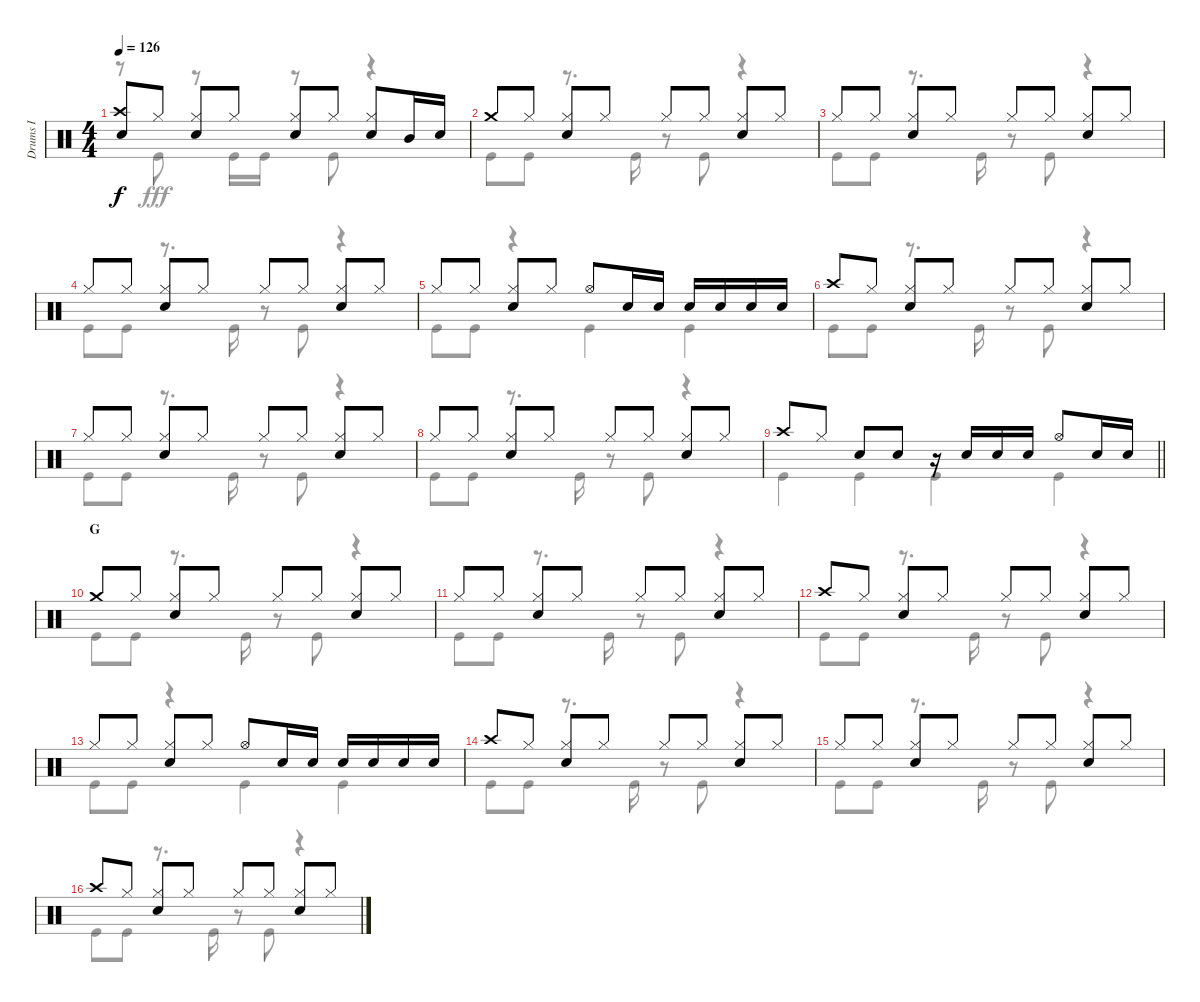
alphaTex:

\track ("Drums I" "Drums I") {instrument percussion}
\staff {score}
\articulation defaults
\voice
\ts (4 4)
\tempo 126
\clef neutral
\ks c
("Crash high (hit)" "Snare (hit) 2").8{dy f} "Hi-Hat (closed)".8 ("Hi-Hat (closed)" "Snare (hit) 2").8 "Hi-Hat (closed)".8 ("Hi-Hat (closed)" "Snare (hit) 2").8 "Hi-Hat (closed)".8 ("Hi-Hat (closed)" "Snare (hit) 2").8 "Mid Tom (hit)".16 "Snare (hit) 2".16 |
"Crash medium (hit)".8 "Hi-Hat (closed)".8 ("Hi-Hat (closed)" "Snare (hit) 2").8 "Hi-Hat (closed)".8 "Hi-Hat (closed)".8 "Hi-Hat (closed)".8 ("Hi-Hat (closed)" "Snare (hit) 2").8 "Hi-Hat (closed)".8 |
"Hi-Hat (closed)".8 "Hi-Hat (closed)".8 ("Hi-Hat (closed)" "Snare (hit) 2").8 "Hi-Hat (closed)".8 "Hi-Hat (closed)".8 "Hi-Hat (closed)".8 ("Hi-Hat (closed)" "Snare (hit) 2").8 "Hi-Hat (closed)".8 |
"Hi-Hat (closed)".8 "Hi-Hat (closed)".8 ("Hi-Hat (closed)" "Snare (hit) 2").8 "Hi-Hat (closed)".8 "Hi-Hat (closed)".8 "Hi-Hat (closed)".8 ("Hi-Hat (closed)" "Snare (hit) 2").8 "Hi-Hat (closed)".8 |
"Hi-Hat (closed)".8 "Hi-Hat (closed)".8 ("Hi-Hat (closed)" "Snare (hit) 2").8 "Hi-Hat (closed)".8 "Hi-Hat (open)".8 "Snare (hit) 2".16 "Snare (hit) 2".16 "Snare (hit) 2".16 "Snare (hit) 2".16 "Snare (hit) 2".16 "Snare (hit) 2".16 |
"Crash high (hit)".8 "Hi-Hat (closed)".8 ("Hi-Hat (closed)" "Snare (hit) 2").8 "Hi-Hat (closed)".8 "Hi-Hat (closed)".8 "Hi-Hat (closed)".8 ("Hi-Hat (closed)" "Snare (hit) 2").8 "Hi-Hat (closed)".8 |
"Hi-Hat (closed)".8 "Hi-Hat (closed)".8 ("Hi-Hat (closed)" "Snare (hit) 2").8 "Hi-Hat (closed)".8 "Hi-Hat (closed)".8 "Hi-Hat (closed)".8 ("Hi-Hat (closed)" "Snare (hit) 2").8 "Hi-Hat (closed)".8 |
"Hi-Hat (closed)".8 "Hi-Hat (closed)".8 ("Hi-Hat (closed)" "Snare (hit) 2").8 "Hi-Hat (closed)".8 "Hi-Hat (closed)".8 "Hi-Hat (closed)".8 ("Hi-Hat (closed)" "Snare (hit) 2").8 "Hi-Hat (closed)".8 |
\barLineRight lightlight "Crash high (hit)".8 "Hi-Hat (closed)".8 "Snare (hit) 2".8 "Snare (hit) 2".8
r.16 "Snare (hit) 2".16 "Snare (hit) 2".16 "Snare (hit) 2".16 "Hi-Hat (open)".8 "Snare (hit) 2".16 "Snare (hit) 2".16 |
\section ("" "G")
"Crash medium (hit)".8 "Hi-Hat (closed)".8 ("Hi-Hat (closed)" "Snare (hit) 2").8 "Hi-Hat (closed)".8 "Hi-Hat (closed)".8 "Hi-Hat (closed)".8 ("Hi-Hat (closed)" "Snare (hit) 2").8 "Hi-Hat (closed)".8 |
"Hi-Hat (closed)".8 "Hi-Hat (closed)".8 ("Hi-Hat (closed)" "Snare (hit) 2").8 "Hi-Hat (closed)".8 "Hi-Hat (closed)".8 "Hi-Hat (closed)".8 ("Hi-Hat (closed)" "Snare (hit) 2").8 "Hi-Hat (closed)".8 |
"Crash high (hit)".8 "Hi-Hat (closed)".8 ("Hi-Hat (closed)" "Snare (hit) 2").8 "Hi-Hat (closed)".8 "Hi-Hat (closed)".8 "Hi-Hat (closed)".8 ("Hi-Hat (closed)" "Snare (hit) 2").8 "Hi-Hat (closed)".8 |
"Hi-Hat (closed)".8 "Hi-Hat (closed)".8 ("Hi-Hat (closed)" "Snare (hit) 2").8 "Hi-Hat (closed)".8 "Hi-Hat (open)".8 "Snare (hit) 2".16 "Snare (hit) 2".16 "Snare (hit) 2".16 "Snare (hit) 2".16 "Snare (hit) 2".16 "Snare (hit) 2".16 |
"Crash high (hit)".8 "Hi-Hat (closed)".8 ("Hi-Hat (closed)" "Snare (hit) 2").8 "Hi-Hat (closed)".8 "Hi-Hat (closed)".8 "Hi-Hat (closed)".8 ("Hi-Hat (closed)" "Snare (hit) 2").8 "Hi-Hat (closed)".8 |
"Hi-Hat (closed)".8 "Hi-Hat (closed)".8 ("Hi-Hat (closed)" "Snare (hit) 2").8 "Hi-Hat (closed)".8 "Hi-Hat (closed)".8 "Hi-Hat (closed)".8 ("Hi-Hat (closed)" "Snare (hit) 2").8 "Hi-Hat (closed)".8 |
"Crash high (hit)".8 "Hi-Hat (closed)".8 ("Hi-Hat (closed)" "Snare (hit) 2").8 "Hi-Hat (closed)".8 "Hi-Hat (closed)".8 "Hi-Hat (closed)".8 ("Hi-Hat (closed)" "Snare (hit) 2").8 "Hi-Hat (closed)".8
\voice
\clef neutral
\ottava regular
\simile none
\ks c
r.8{dy fff} "Kick (hit)".8 r.8 "Kick (hit)".16 "Kick (hit)".16 r.8 "Kick (hit)".8 r.4 |
"Kick (hit)".8 "Kick (hit)".8 r.8{d} "Kick (hit)".16 r.8 "Kick (hit)".8 r.4 |
"Kick (hit)".8 "Kick (hit)".8 r.8{d} "Kick (hit)".16 r.8 "Kick (hit)".8 r.4 |
"Kick (hit)".8 "Kick (hit)".8 r.8{d} "Kick (hit)".16 r.8 "Kick (hit)".8 r.4 |
"Kick (hit)".8 "Kick (hit)".8 r.4 "Kick (hit)".4 "Kick (hit)".4 |
"Kick (hit)".8 "Kick (hit)".8 r.8{d} "Kick (hit)".16 r.8 "Kick (hit)".8 r.4 |
"Kick (hit)".8 "Kick (hit)".8 r.8{d} "Kick (hit)".16 r.8 "Kick (hit)".8 r.4 |
"Kick (hit)".8 "Kick (hit)".8 r.8{d} "Kick (hit)".16 r.8 "Kick (hit)".8 r.4 |
\barLineRight lightlight "Kick (hit)".4 "Kick (hit)".4 "Kick (hit)".4 "Kick (hit)".4
|
"Kick (hit)".8 "Kick (hit)".8 r.8{d} "Kick (hit)".16 r.8 "Kick (hit)".8 r.4 |
"Kick (hit)".8 "Kick (hit)".8 r.8{d} "Kick (hit)".16 r.8 "Kick (hit)".8 r.4 |
"Kick (hit)".8 "Kick (hit)".8 r.8{d} "Kick (hit)".16 r.8 "Kick (hit)".8 r.4 |
"Kick (hit)".8 "Kick (hit)".8 r.4 "Kick (hit)".4 "Kick (hit)".4 |
"Kick (hit)".8 "Kick (hit)".8 r.8{d} "Kick (hit)".16 r.8 "Kick (hit)".8 r.4 |
"Kick (hit)".8 "Kick (hit)".8 r.8{d} "Kick (hit)".16 r.8 "Kick (hit)".8 r.4 |
"Kick (hit)".8 "Kick (hit)".8 r.8{d} "Kick (hit)".16 r.8 "Kick (hit)".8 r.4
